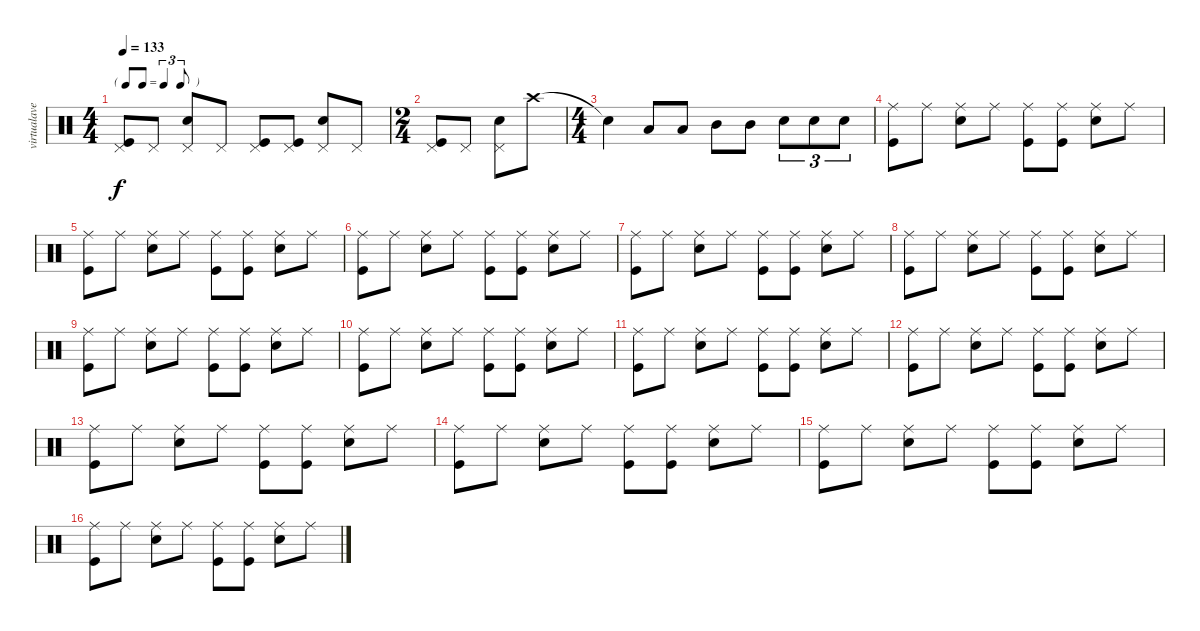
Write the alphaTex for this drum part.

\track ("virtualave.net" "virtualave") {instrument percussion}
\staff {score}
\articulation defaults
\ts (4 4)
\tf triplet8th
\tempo 133
\clef neutral
\ks c
("Pedal Hi-Hat (hit)" "Kick (hit)").8{dy f} "Pedal Hi-Hat (hit)".8 ("Pedal Hi-Hat (hit)" "Snare (hit) 2").8 "Pedal Hi-Hat (hit)".8 ("Pedal Hi-Hat (hit)" "Kick (hit)").8 ("Pedal Hi-Hat (hit)" "Kick (hit)").8 ("Pedal Hi-Hat (hit)" "Snare (hit) 2").8 "Pedal Hi-Hat (hit)".8 |
\ts (2 4)
("Pedal Hi-Hat (hit)" "Kick (hit)").8 "Pedal Hi-Hat (hit)".8 ("Pedal Hi-Hat (hit)" "Snare (hit) 2").8 "Crash high (hit)".8 |
\ts (4 4)
"Snare (hit)"{t}.4 "Low Tom (hit)".8 "Low Tom (hit)".8 "Mid Tom (hit)".8 "Mid Tom (hit)".8 "Snare (hit) 2".8{tu (3 2)} "Snare (hit) 2".8{tu (3 2)} "Snare (hit) 2".8{tu (3 2)} |
("Ride (middle)" "Kick (hit)").8 "Ride (middle)".8 ("Ride (middle)" "Snare (hit) 2").8 "Ride (middle)".8 ("Ride (middle)" "Kick (hit)").8 ("Ride (middle)" "Kick (hit)").8 ("Ride (middle)" "Snare (hit) 2").8 "Ride (middle)".8 |
("Ride (middle)" "Kick (hit)").8 "Ride (middle)".8 ("Ride (middle)" "Snare (hit) 2").8 "Ride (middle)".8 ("Ride (middle)" "Kick (hit)").8 ("Ride (middle)" "Kick (hit)").8 ("Ride (middle)" "Snare (hit) 2").8 "Ride (middle)".8 |
("Ride (middle)" "Kick (hit)").8 "Ride (middle)".8 ("Ride (middle)" "Snare (hit) 2").8 "Ride (middle)".8 ("Ride (middle)" "Kick (hit)").8 ("Ride (middle)" "Kick (hit)").8 ("Ride (middle)" "Snare (hit) 2").8 "Ride (middle)".8 |
("Ride (middle)" "Kick (hit)").8 "Ride (middle)".8 ("Ride (middle)" "Snare (hit) 2").8 "Ride (middle)".8 ("Ride (middle)" "Kick (hit)").8 ("Ride (middle)" "Kick (hit)").8 ("Ride (middle)" "Snare (hit) 2").8 "Ride (middle)".8 |
("Ride (middle)" "Kick (hit)").8 "Ride (middle)".8 ("Ride (middle)" "Snare (hit) 2").8 "Ride (middle)".8 ("Ride (middle)" "Kick (hit)").8 ("Ride (middle)" "Kick (hit)").8 ("Ride (middle)" "Snare (hit) 2").8 "Ride (middle)".8 |
("Ride (middle)" "Kick (hit)").8 "Ride (middle)".8 ("Ride (middle)" "Snare (hit) 2").8 "Ride (middle)".8 ("Ride (middle)" "Kick (hit)").8 ("Ride (middle)" "Kick (hit)").8 ("Ride (middle)" "Snare (hit) 2").8 "Ride (middle)".8 |
("Ride (middle)" "Kick (hit)").8 "Ride (middle)".8 ("Ride (middle)" "Snare (hit) 2").8 "Ride (middle)".8 ("Ride (middle)" "Kick (hit)").8 ("Ride (middle)" "Kick (hit)").8 ("Ride (middle)" "Snare (hit) 2").8 "Ride (middle)".8 |
("Ride (middle)" "Kick (hit)").8 "Ride (middle)".8 ("Ride (middle)" "Snare (hit) 2").8 "Ride (middle)".8 ("Ride (middle)" "Kick (hit)").8 ("Ride (middle)" "Kick (hit)").8 ("Ride (middle)" "Snare (hit) 2").8 "Ride (middle)".8 |
("Ride (middle)" "Kick (hit)").8 "Ride (middle)".8 ("Ride (middle)" "Snare (hit) 2").8 "Ride (middle)".8 ("Ride (middle)" "Kick (hit)").8 ("Ride (middle)" "Kick (hit)").8 ("Ride (middle)" "Snare (hit) 2").8 "Ride (middle)".8 |
("Ride (middle)" "Kick (hit)").8 "Ride (middle)".8 ("Ride (middle)" "Snare (hit) 2").8 "Ride (middle)".8 ("Ride (middle)" "Kick (hit)").8 ("Ride (middle)" "Kick (hit)").8 ("Ride (middle)" "Snare (hit) 2").8 "Ride (middle)".8 |
("Ride (middle)" "Kick (hit)").8 "Ride (middle)".8 ("Ride (middle)" "Snare (hit) 2").8 "Ride (middle)".8 ("Ride (middle)" "Kick (hit)").8 ("Ride (middle)" "Kick (hit)").8 ("Ride (middle)" "Snare (hit) 2").8 "Ride (middle)".8 |
("Ride (middle)" "Kick (hit)").8 "Ride (middle)".8 ("Ride (middle)" "Snare (hit) 2").8 "Ride (middle)".8 ("Ride (middle)" "Kick (hit)").8 ("Ride (middle)" "Kick (hit)").8 ("Ride (middle)" "Snare (hit) 2").8 "Ride (middle)".8 |
("Ride (middle)" "Kick (hit)").8 "Ride (middle)".8 ("Ride (middle)" "Snare (hit) 2").8 "Ride (middle)".8 ("Ride (middle)" "Kick (hit)").8 ("Ride (middle)" "Kick (hit)").8 ("Ride (middle)" "Snare (hit) 2").8 "Ride (middle)".8
